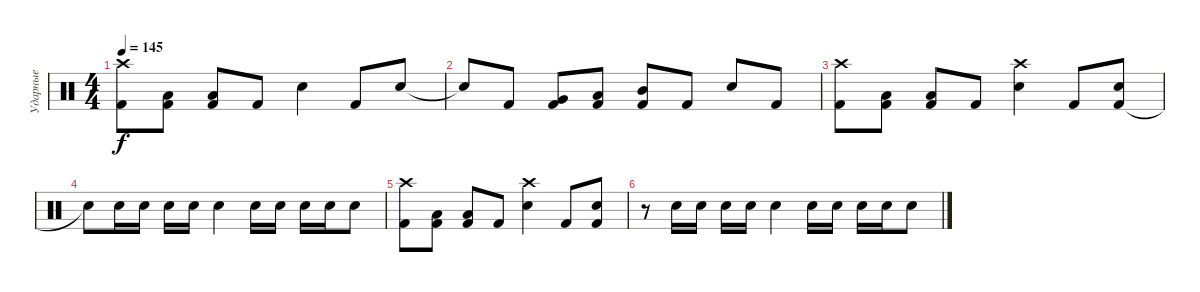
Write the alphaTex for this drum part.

\track ("Ударные" "Ударные") {instrument percussion}
\staff {score}
\articulation defaults
\ts (4 4)
\tempo 145
\clef neutral
\ks c
("Kick (hit) 2" "Crash high (hit)").8{dy f} ("Kick (hit) 2" "Low Tom (hit)").8 ("Kick (hit) 2" "Low Floor Tom (hit)").8 "Kick (hit) 2".8 "Electric Snare (hit)".4 "Kick (hit) 2".8 "Electric Snare (hit)".8 |
"Hand Clap (hit)"{t}.8 "Kick (hit) 2".8 ("Kick (hit) 2" "Very Low Tom (hit)").8 ("Kick (hit) 2" "Low Tom (hit)").8 ("Kick (hit) 2" "Mid Tom (hit)").8 "Kick (hit) 2".8 "Electric Snare (hit)".8 "Kick (hit) 2".8 |
("Kick (hit) 2" "Crash high (hit)").8 ("Kick (hit) 2" "Low Tom (hit)").8 ("Kick (hit) 2" "Low Floor Tom (hit)").8 "Kick (hit) 2".8 ("Electric Snare (hit)" "Crash high (hit)").4 "Kick (hit) 2".8 ("Kick (hit) 2" "Electric Snare (hit)").8 |
"Electric Snare (hit)"{t}.8 "Electric Snare (hit)".16 "Electric Snare (hit)".16 "Electric Snare (hit)".16 "Electric Snare (hit)".16 "Electric Snare (hit)".4 "Electric Snare (hit)".16 "Electric Snare (hit)".16 "Electric Snare (hit)".16 "Electric Snare (hit)".16 "Electric Snare (hit)".8 |
("Kick (hit) 2" "Crash high (hit)").8 ("Kick (hit) 2" "Low Tom (hit)").8 ("Kick (hit) 2" "Low Floor Tom (hit)").8 "Kick (hit) 2".8 ("Electric Snare (hit)" "Crash high (hit)").4 "Kick (hit) 2".8 ("Kick (hit) 2" "Electric Snare (hit)").8 |
r.8 "Electric Snare (hit)".16 "Electric Snare (hit)".16 "Electric Snare (hit)".16 "Electric Snare (hit)".16 "Electric Snare (hit)".4 "Electric Snare (hit)".16 "Electric Snare (hit)".16 "Electric Snare (hit)".16 "Electric Snare (hit)".16 "Electric Snare (hit)".8
